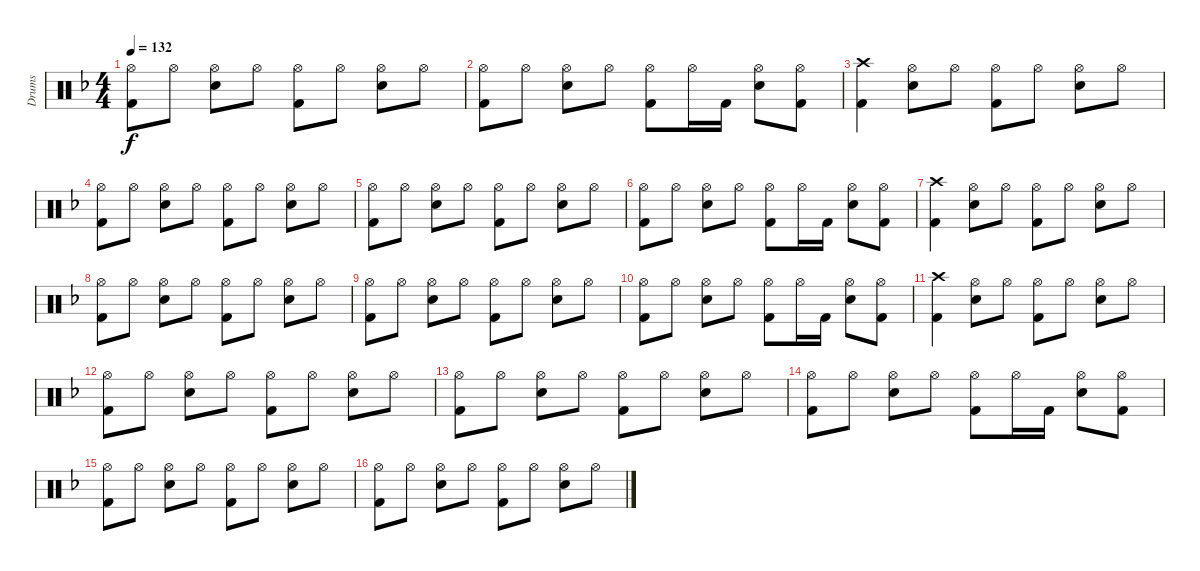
\track ("Drums " "Drums ") {instrument percussion}
\staff {score}
\articulation defaults
\ts (4 4)
\tempo 132
\clef neutral
\ks dminor
("Kick (hit) 2" "Hi-Hat (open)").8{dy f} "Hi-Hat (open)".8 ("Snare (hit) 2" "Hi-Hat (open)").8 "Hi-Hat (open)".8 ("Kick (hit) 2" "Hi-Hat (open)").8 "Hi-Hat (open)".8 ("Snare (hit) 2" "Hi-Hat (open)").8 "Hi-Hat (open)".8 |
("Kick (hit) 2" "Hi-Hat (open)").8 "Hi-Hat (open)".8 ("Snare (hit) 2" "Hi-Hat (open)").8 "Hi-Hat (open)".8 ("Kick (hit) 2" "Hi-Hat (open)").8 "Hi-Hat (open)".16 "Kick (hit) 2".16 ("Snare (hit) 2" "Hi-Hat (open)").8 ("Kick (hit) 2" "Hi-Hat (open)").8 |
("Kick (hit) 2" "Crash high (hit)").4 ("Snare (hit) 2" "Hi-Hat (open)").8 "Hi-Hat (open)".8 ("Kick (hit) 2" "Hi-Hat (open)").8 "Hi-Hat (open)".8 ("Snare (hit) 2" "Hi-Hat (open)").8 "Hi-Hat (open)".8 |
("Kick (hit) 2" "Hi-Hat (open)").8 "Hi-Hat (open)".8 ("Snare (hit) 2" "Hi-Hat (open)").8 "Hi-Hat (open)".8 ("Kick (hit) 2" "Hi-Hat (open)").8 "Hi-Hat (open)".8 ("Snare (hit) 2" "Hi-Hat (open)").8 "Hi-Hat (open)".8 |
("Kick (hit) 2" "Hi-Hat (open)").8 "Hi-Hat (open)".8 ("Snare (hit) 2" "Hi-Hat (open)").8 "Hi-Hat (open)".8 ("Kick (hit) 2" "Hi-Hat (open)").8 "Hi-Hat (open)".8 ("Snare (hit) 2" "Hi-Hat (open)").8 "Hi-Hat (open)".8 |
("Kick (hit) 2" "Hi-Hat (open)").8 "Hi-Hat (open)".8 ("Snare (hit) 2" "Hi-Hat (open)").8 "Hi-Hat (open)".8 ("Kick (hit) 2" "Hi-Hat (open)").8 "Hi-Hat (open)".16 "Kick (hit) 2".16 ("Snare (hit) 2" "Hi-Hat (open)").8 ("Kick (hit) 2" "Hi-Hat (open)").8 |
("Kick (hit) 2" "Crash high (hit)").4 ("Snare (hit) 2" "Hi-Hat (open)").8 "Hi-Hat (open)".8 ("Kick (hit) 2" "Hi-Hat (open)").8 "Hi-Hat (open)".8 ("Snare (hit) 2" "Hi-Hat (open)").8 "Hi-Hat (open)".8 |
("Kick (hit) 2" "Hi-Hat (open)").8 "Hi-Hat (open)".8 ("Snare (hit) 2" "Hi-Hat (open)").8 "Hi-Hat (open)".8 ("Kick (hit) 2" "Hi-Hat (open)").8 "Hi-Hat (open)".8 ("Snare (hit) 2" "Hi-Hat (open)").8 "Hi-Hat (open)".8 |
("Kick (hit) 2" "Hi-Hat (open)").8 "Hi-Hat (open)".8 ("Snare (hit) 2" "Hi-Hat (open)").8 "Hi-Hat (open)".8 ("Kick (hit) 2" "Hi-Hat (open)").8 "Hi-Hat (open)".8 ("Snare (hit) 2" "Hi-Hat (open)").8 "Hi-Hat (open)".8 |
("Kick (hit) 2" "Hi-Hat (open)").8 "Hi-Hat (open)".8 ("Snare (hit) 2" "Hi-Hat (open)").8 "Hi-Hat (open)".8 ("Kick (hit) 2" "Hi-Hat (open)").8 "Hi-Hat (open)".16 "Kick (hit) 2".16 ("Snare (hit) 2" "Hi-Hat (open)").8 ("Kick (hit) 2" "Hi-Hat (open)").8 |
("Kick (hit) 2" "Crash high (hit)").4 ("Snare (hit) 2" "Hi-Hat (open)").8 "Hi-Hat (open)".8 ("Kick (hit) 2" "Hi-Hat (open)").8 "Hi-Hat (open)".8 ("Snare (hit) 2" "Hi-Hat (open)").8 "Hi-Hat (open)".8 |
("Kick (hit) 2" "Hi-Hat (open)").8 "Hi-Hat (open)".8 ("Snare (hit) 2" "Hi-Hat (open)").8 "Hi-Hat (open)".8 ("Kick (hit) 2" "Hi-Hat (open)").8 "Hi-Hat (open)".8 ("Snare (hit) 2" "Hi-Hat (open)").8 "Hi-Hat (open)".8 |
("Kick (hit) 2" "Hi-Hat (open)").8 "Hi-Hat (open)".8 ("Snare (hit) 2" "Hi-Hat (open)").8 "Hi-Hat (open)".8 ("Kick (hit) 2" "Hi-Hat (open)").8 "Hi-Hat (open)".8 ("Snare (hit) 2" "Hi-Hat (open)").8 "Hi-Hat (open)".8 |
("Kick (hit) 2" "Hi-Hat (open)").8 "Hi-Hat (open)".8 ("Snare (hit) 2" "Hi-Hat (open)").8 "Hi-Hat (open)".8 ("Kick (hit) 2" "Hi-Hat (open)").8 "Hi-Hat (open)".16 "Kick (hit) 2".16 ("Snare (hit) 2" "Hi-Hat (open)").8 ("Kick (hit) 2" "Hi-Hat (open)").8 |
("Kick (hit) 2" "Hi-Hat (open)").8 "Hi-Hat (open)".8 ("Snare (hit) 2" "Hi-Hat (open)").8 "Hi-Hat (open)".8 ("Kick (hit) 2" "Hi-Hat (open)").8 "Hi-Hat (open)".8 ("Snare (hit) 2" "Hi-Hat (open)").8 "Hi-Hat (open)".8 |
("Kick (hit) 2" "Hi-Hat (open)").8 "Hi-Hat (open)".8 ("Snare (hit) 2" "Hi-Hat (open)").8 "Hi-Hat (open)".8 ("Kick (hit) 2" "Hi-Hat (open)").8 "Hi-Hat (open)".8 ("Snare (hit) 2" "Hi-Hat (open)").8 "Hi-Hat (open)".8
